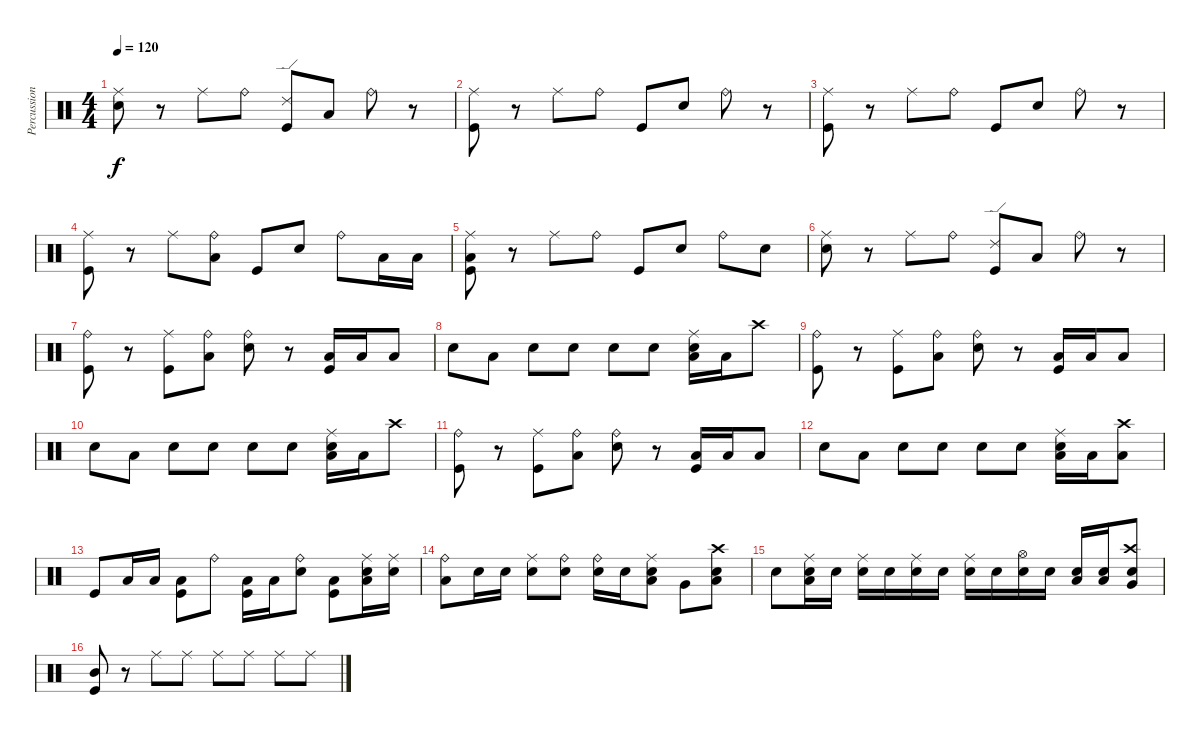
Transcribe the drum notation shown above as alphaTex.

\track ("Percussion" "Percussion") {instrument percussion}
\staff {score}
\articulation defaults
\ts (4 4)
\tempo 120
\clef neutral
\ks c
("Ride (middle)" "Electric Snare (hit)").8{dy f} r.8 "Ride (middle)".8 "Ride (bell)".8 ("Ride (edge) 2" "Kick (hit)").8 "Low Tom (hit)".8 "Ride (bell)".8 r.8 |
("Ride (middle)" "Kick (hit)").8 r.8 "Ride (middle)".8 "Ride (bell)".8 "Kick (hit)".8 "Electric Snare (hit)".8 "Ride (bell)".8 r.8 |
("Ride (middle)" "Kick (hit)").8 r.8 "Ride (middle)".8 "Ride (bell)".8 "Kick (hit)".8 "Electric Snare (hit)".8 "Ride (bell)".8 r.8 |
("Ride (middle)" "Kick (hit)").8 r.8 "Ride (middle)".8 ("Ride (bell)" "Low Tom (hit)").8 "Kick (hit)".8 "Electric Snare (hit)".8 "Ride (bell)".8 "Low Tom (hit)".16 "Low Tom (hit)".16 |
("Ride (middle)" "Low Tom (hit)" "Kick (hit)").8 r.8 "Ride (middle)".8 "Ride (bell)".8 "Kick (hit)".8 "Electric Snare (hit)".8 "Ride (bell)".8 "Electric Snare (hit)".8 |
("Ride (middle)" "Electric Snare (hit)").8 r.8 "Ride (middle)".8 "Ride (bell)".8 ("Ride (edge) 2" "Kick (hit)").8 "Low Tom (hit)".8 "Ride (bell)".8 r.8 |
("Ride (bell)" "Kick (hit)").8 r.8 ("Ride (middle)" "Kick (hit)").8 ("Ride (bell)" "Low Tom (hit)").8 ("Ride (bell)" "Electric Snare (hit)").8 r.8 ("Low Tom (hit)" "Kick (hit)").16 "Low Tom (hit)".16 "Low Tom (hit)".8 |
"Electric Snare (hit)".8 "Low Tom (hit)".8 "Electric Snare (hit)".8 "Electric Snare (hit)".8 "Electric Snare (hit)".8 "Electric Snare (hit)".8 ("Ride (middle)" "Low Tom (hit)" "Electric Snare (hit)").16 "Low Tom (hit)".16 "Crash high (hit)".8 |
("Ride (bell)" "Kick (hit)").8 r.8 ("Ride (middle)" "Kick (hit)").8 ("Ride (bell)" "Low Tom (hit)").8 ("Ride (bell)" "Electric Snare (hit)").8 r.8 ("Low Tom (hit)" "Kick (hit)").16 "Low Tom (hit)".16 "Low Tom (hit)".8 |
"Electric Snare (hit)".8 "Low Tom (hit)".8 "Electric Snare (hit)".8 "Electric Snare (hit)".8 "Electric Snare (hit)".8 "Electric Snare (hit)".8 ("Ride (middle)" "Low Tom (hit)" "Electric Snare (hit)").16 "Low Tom (hit)".16 "Crash high (hit)".8 |
("Ride (bell)" "Kick (hit)").8 r.8 ("Ride (middle)" "Kick (hit)").8 ("Ride (bell)" "Low Tom (hit)").8 ("Ride (bell)" "Electric Snare (hit)").8 r.8 ("Low Tom (hit)" "Kick (hit)").16 "Low Tom (hit)".16 "Low Tom (hit)".8 |
"Electric Snare (hit)".8 "Low Tom (hit)".8 "Electric Snare (hit)".8 "Electric Snare (hit)".8 "Electric Snare (hit)".8 "Electric Snare (hit)".8 ("Ride (middle)" "Low Tom (hit)" "Electric Snare (hit)").16 "Low Tom (hit)".16 ("Crash high (hit)" "Low Tom (hit)").8 |
"Kick (hit)".8 "Low Tom (hit)".16 "Low Tom (hit)".16 ("Low Tom (hit)" "Kick (hit)").8 "Ride (bell)".8 ("Low Tom (hit)" "Kick (hit)").16 "Low Tom (hit)".16 ("Ride (bell)" "Electric Snare (hit)").8 ("Low Tom (hit)" "Kick (hit)").8 ("Ride (middle)" "Low Tom (hit)" "Electric Snare (hit)").16 ("Ride (middle)" "Electric Snare (hit)").16 |
("Ride (bell)" "Low Tom (hit)").8 "Electric Snare (hit)".16 "Electric Snare (hit)".16 ("Ride (middle)" "Electric Snare (hit)").8 ("Ride (bell)" "Electric Snare (hit)").8 ("Ride (bell)" "Electric Snare (hit)").16 "Electric Snare (hit)".16 ("Ride (middle)" "Low Tom (hit)" "Electric Snare (hit)").8 "Very Low Tom (hit)".8 ("Crash high (hit)" "Low Tom (hit)" "Electric Snare (hit)").8 |
"Electric Snare (hit)".8 ("Ride (middle)" "Low Tom (hit)" "Electric Snare (hit)").16 "Electric Snare (hit)".16 ("Ride (middle)" "Electric Snare (hit)").16 "Electric Snare (hit)".16 ("Ride (middle)" "Electric Snare (hit)").16 "Electric Snare (hit)".16 ("Ride (middle)" "Electric Snare (hit)").16 "Electric Snare (hit)".16 ("Hi-Hat (open)" "Electric Snare (hit)").16 "Electric Snare (hit)".16 ("Low Tom (hit)" "Electric Snare (hit)").16 ("Low Tom (hit)" "Electric Snare (hit)").16 ("Crash high (hit)" "Very Low Tom (hit)" "Electric Snare (hit)").8 |
("Mid Tom (hit)" "Kick (hit)").8 r.8 "Ride (middle)".8 "Ride (middle)".8 "Ride (middle)".8 "Ride (middle)".8 "Ride (middle)".8 "Ride (middle)".8
